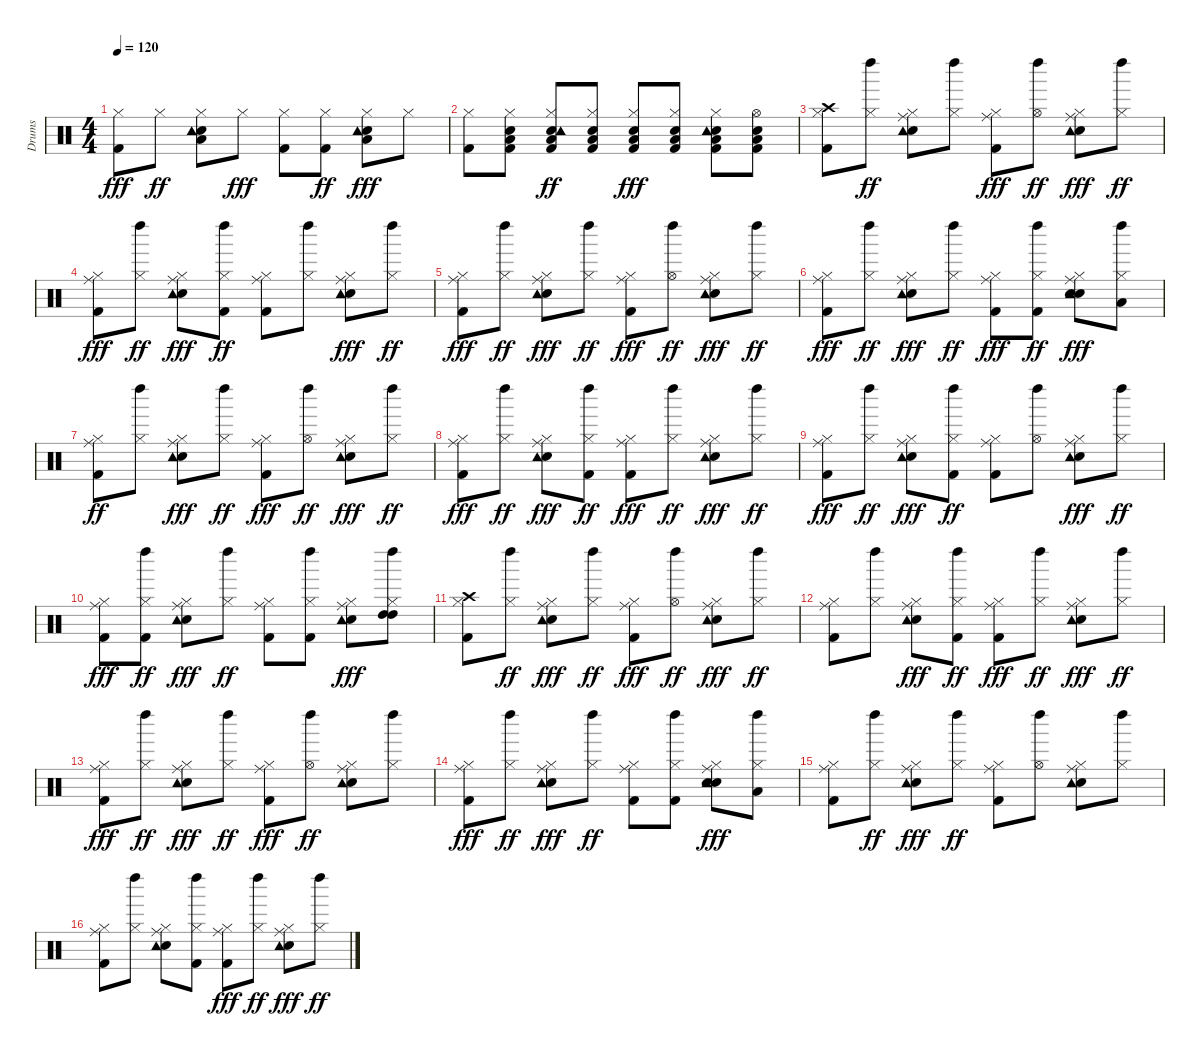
\track ("Drums" "Drums") {instrument percussion}
\staff {score}
\articulation defaults
\ts (4 4)
\tempo 120
\clef neutral
\ks c
("Kick (hit) 2" "Hi-Hat (closed)").8{dy fff} "Hi-Hat (closed)".8{dy ff} ("Hi-Hat (closed)" "Low Floor Tom (hit)" "Snare (hit) 2" "Tambourine (hit)").8 "Hi-Hat (closed)".8{dy fff} ("Kick (hit) 2" "Hi-Hat (closed)").8 ("Kick (hit) 2" "Hi-Hat (closed)").8{dy ff} ("Hi-Hat (closed)" "Low Floor Tom (hit)" "Snare (hit) 2" "Tambourine (hit)").8{dy fff} "Hi-Hat (closed)".8 |
("Kick (hit) 2" "Hi-Hat (closed)").8 ("Kick (hit) 2" "Hi-Hat (closed)" "Snare (hit) 2" "Low Floor Tom (hit)").8 ("Kick (hit) 2" "Hi-Hat (closed)" "Low Floor Tom (hit)" "Snare (hit) 2" "Tambourine (hit)").8{dy ff} ("Kick (hit) 2" "Hi-Hat (closed)" "Low Floor Tom (hit)" "Snare (hit) 2").8 ("Kick (hit) 2" "Hi-Hat (closed)" "Low Floor Tom (hit)" "Snare (hit) 2").8{dy fff} ("Kick (hit) 2" "Hi-Hat (closed)" "Snare (hit) 2" "Low Floor Tom (hit)").8 ("Kick (hit) 2" "Hi-Hat (closed)" "Low Floor Tom (hit)" "Snare (hit) 2" "Tambourine (hit)").8 ("Kick (hit) 2" "Hi-Hat (open)" "Snare (hit) 2" "Low Floor Tom (hit)").8 |
("Kick (hit) 2" "Hi-Hat (closed)" "Crash high (hit)").8 ("Hi-Hat (closed)" "Left Maraca (hit)").8{dy ff} ("Hi-Hat (closed)" "Snare (hit) 2" "Tambourine (hit)" "Ride (middle)").8 ("Hi-Hat (closed)" "Left Maraca (hit)").8 ("Kick (hit) 2" "Hi-Hat (closed)" "Ride (middle)").8{dy fff} ("Hi-Hat (open)" "Left Maraca (hit)").8{dy ff} ("Hi-Hat (closed)" "Snare (hit) 2" "Tambourine (hit)" "Ride (middle)").8{dy fff} ("Hi-Hat (closed)" "Left Maraca (hit)").8{dy ff} |
("Kick (hit) 2" "Hi-Hat (closed)" "Ride (middle)").8{dy fff} ("Hi-Hat (closed)" "Left Maraca (hit)").8{dy ff} ("Hi-Hat (closed)" "Snare (hit) 2" "Tambourine (hit)" "Ride (middle)").8{dy fff} ("Kick (hit) 2" "Hi-Hat (closed)" "Left Maraca (hit)").8{dy ff} ("Kick (hit) 2" "Hi-Hat (closed)" "Ride (middle)").8 ("Hi-Hat (closed)" "Left Maraca (hit)").8 ("Hi-Hat (closed)" "Snare (hit) 2" "Tambourine (hit)" "Ride (middle)").8{dy fff} ("Hi-Hat (closed)" "Left Maraca (hit)").8{dy ff} |
("Kick (hit) 2" "Hi-Hat (closed)" "Ride (middle)").8{dy fff} ("Hi-Hat (closed)" "Left Maraca (hit)").8{dy ff} ("Hi-Hat (closed)" "Snare (hit) 2" "Tambourine (hit)" "Ride (middle)").8{dy fff} ("Hi-Hat (closed)" "Left Maraca (hit)").8{dy ff} ("Kick (hit) 2" "Hi-Hat (closed)" "Ride (middle)").8{dy fff} ("Hi-Hat (open)" "Left Maraca (hit)").8{dy ff} ("Hi-Hat (closed)" "Snare (hit) 2" "Tambourine (hit)" "Ride (middle)").8{dy fff} ("Hi-Hat (closed)" "Left Maraca (hit)").8{dy ff} |
("Kick (hit) 2" "Hi-Hat (closed)" "Ride (middle)").8{dy fff} ("Hi-Hat (closed)" "Left Maraca (hit)").8{dy ff} ("Hi-Hat (closed)" "Snare (hit) 2" "Tambourine (hit)" "Ride (middle)").8{dy fff} ("Hi-Hat (closed)" "Left Maraca (hit)").8{dy ff} ("Kick (hit) 2" "Hi-Hat (closed)" "Ride (middle)").8{dy fff} ("Kick (hit) 2" "Hi-Hat (closed)" "Left Maraca (hit)").8{dy ff} ("Hi-Hat (closed)" "Snare (hit) 2" "Tambourine (hit)" "Ride (middle)" "Snare (hit) 2").8{dy fff} ("Hi-Hat (closed)" "Left Maraca (hit)" "Low Floor Tom (hit)").8 |
("Kick (hit) 2" "Hi-Hat (closed)" "Ride (middle)").8{dy ff} ("Hi-Hat (closed)" "Left Maraca (hit)").8 ("Hi-Hat (closed)" "Snare (hit) 2" "Tambourine (hit)" "Ride (middle)").8{dy fff} ("Hi-Hat (closed)" "Left Maraca (hit)").8{dy ff} ("Kick (hit) 2" "Hi-Hat (closed)" "Ride (middle)").8{dy fff} ("Hi-Hat (open)" "Left Maraca (hit)").8{dy ff} ("Hi-Hat (closed)" "Snare (hit) 2" "Tambourine (hit)" "Ride (middle)").8{dy fff} ("Hi-Hat (closed)" "Left Maraca (hit)").8{dy ff} |
("Kick (hit) 2" "Hi-Hat (closed)" "Ride (middle)").8{dy fff} ("Hi-Hat (closed)" "Left Maraca (hit)").8{dy ff} ("Hi-Hat (closed)" "Snare (hit) 2" "Tambourine (hit)" "Ride (middle)").8{dy fff} ("Kick (hit) 2" "Hi-Hat (closed)" "Left Maraca (hit)").8{dy ff} ("Kick (hit) 2" "Hi-Hat (closed)" "Ride (middle)").8{dy fff} ("Hi-Hat (closed)" "Left Maraca (hit)").8{dy ff} ("Hi-Hat (closed)" "Snare (hit) 2" "Tambourine (hit)" "Ride (middle)").8{dy fff} ("Hi-Hat (closed)" "Left Maraca (hit)").8{dy ff} |
("Kick (hit) 2" "Hi-Hat (closed)" "Ride (middle)").8{dy fff} ("Hi-Hat (closed)" "Left Maraca (hit)").8{dy ff} ("Hi-Hat (closed)" "Snare (hit) 2" "Tambourine (hit)" "Ride (middle)").8{dy fff} ("Kick (hit) 2" "Hi-Hat (closed)" "Left Maraca (hit)").8{dy ff} ("Kick (hit) 2" "Hi-Hat (closed)" "Ride (middle)").8 ("Hi-Hat (open)" "Left Maraca (hit)").8 ("Hi-Hat (closed)" "Snare (hit) 2" "Tambourine (hit)" "Ride (middle)").8{dy fff} ("Hi-Hat (closed)" "Left Maraca (hit)").8{dy ff} |
("Kick (hit) 2" "Hi-Hat (closed)" "Ride (middle)").8{dy fff} ("Kick (hit) 2" "Hi-Hat (closed)" "Left Maraca (hit)").8{dy ff} ("Hi-Hat (closed)" "Snare (hit) 2" "Tambourine (hit)" "Ride (middle)").8{dy fff} ("Hi-Hat (closed)" "Left Maraca (hit)").8{dy ff} ("Kick (hit) 2" "Hi-Hat (closed)" "Ride (middle)").8 ("Kick (hit) 2" "Hi-Hat (closed)" "Left Maraca (hit)").8 ("Hi-Hat (closed)" "Snare (hit) 2" "Tambourine (hit)" "Ride (middle)").8{dy fff} ("Hi-Hat (closed)" "Left Maraca (hit)" "High Tom (hit)" "High Tom (hit)").8 |
("Kick (hit) 2" "Hi-Hat (closed)" "Crash high (hit)").8 ("Hi-Hat (closed)" "Left Maraca (hit)").8{dy ff} ("Hi-Hat (closed)" "Snare (hit) 2" "Tambourine (hit)" "Ride (middle)").8{dy fff} ("Hi-Hat (closed)" "Left Maraca (hit)").8{dy ff} ("Kick (hit) 2" "Hi-Hat (closed)" "Ride (middle)").8{dy fff} ("Hi-Hat (open)" "Left Maraca (hit)").8{dy ff} ("Hi-Hat (closed)" "Snare (hit) 2" "Tambourine (hit)" "Ride (middle)").8{dy fff} ("Hi-Hat (closed)" "Left Maraca (hit)").8{dy ff} |
("Kick (hit) 2" "Hi-Hat (closed)" "Ride (middle)").8 ("Hi-Hat (closed)" "Left Maraca (hit)").8 ("Hi-Hat (closed)" "Snare (hit) 2" "Tambourine (hit)" "Ride (middle)").8{dy fff} ("Kick (hit) 2" "Hi-Hat (closed)" "Left Maraca (hit)").8{dy ff} ("Kick (hit) 2" "Hi-Hat (closed)" "Ride (middle)").8{dy fff} ("Hi-Hat (closed)" "Left Maraca (hit)").8{dy ff} ("Hi-Hat (closed)" "Snare (hit) 2" "Tambourine (hit)" "Ride (middle)").8{dy fff} ("Hi-Hat (closed)" "Left Maraca (hit)").8{dy ff} |
("Kick (hit) 2" "Hi-Hat (closed)" "Ride (middle)").8{dy fff} ("Hi-Hat (closed)" "Left Maraca (hit)").8{dy ff} ("Hi-Hat (closed)" "Snare (hit) 2" "Tambourine (hit)" "Ride (middle)").8{dy fff} ("Hi-Hat (closed)" "Left Maraca (hit)").8{dy ff} ("Kick (hit) 2" "Hi-Hat (closed)" "Ride (middle)").8{dy fff} ("Hi-Hat (open)" "Left Maraca (hit)").8{dy ff} ("Hi-Hat (closed)" "Snare (hit) 2" "Tambourine (hit)" "Ride (middle)").8 ("Hi-Hat (closed)" "Left Maraca (hit)").8 |
("Kick (hit) 2" "Hi-Hat (closed)" "Ride (middle)").8{dy fff} ("Hi-Hat (closed)" "Left Maraca (hit)").8{dy ff} ("Hi-Hat (closed)" "Snare (hit) 2" "Tambourine (hit)" "Ride (middle)").8{dy fff} ("Hi-Hat (closed)" "Left Maraca (hit)").8{dy ff} ("Kick (hit) 2" "Hi-Hat (closed)" "Ride (middle)").8 ("Kick (hit) 2" "Hi-Hat (closed)" "Left Maraca (hit)").8 ("Hi-Hat (closed)" "Snare (hit) 2" "Tambourine (hit)" "Ride (middle)" "Snare (hit) 2").8{dy fff} ("Hi-Hat (closed)" "Left Maraca (hit)" "Low Floor Tom (hit)").8 |
("Kick (hit) 2" "Hi-Hat (closed)" "Ride (middle)").8 ("Hi-Hat (closed)" "Left Maraca (hit)").8{dy ff} ("Hi-Hat (closed)" "Snare (hit) 2" "Tambourine (hit)" "Ride (middle)").8{dy fff} ("Hi-Hat (closed)" "Left Maraca (hit)").8{dy ff} ("Kick (hit) 2" "Hi-Hat (closed)" "Ride (middle)").8 ("Hi-Hat (open)" "Left Maraca (hit)").8 ("Hi-Hat (closed)" "Snare (hit) 2" "Tambourine (hit)" "Ride (middle)").8 ("Hi-Hat (closed)" "Left Maraca (hit)").8 |
("Kick (hit) 2" "Hi-Hat (closed)" "Ride (middle)").8 ("Hi-Hat (closed)" "Left Maraca (hit)").8 ("Hi-Hat (closed)" "Snare (hit) 2" "Tambourine (hit)" "Ride (middle)").8 ("Kick (hit) 2" "Hi-Hat (closed)" "Left Maraca (hit)").8 ("Kick (hit) 2" "Hi-Hat (closed)" "Ride (middle)").8{dy fff} ("Hi-Hat (closed)" "Left Maraca (hit)").8{dy ff} ("Hi-Hat (closed)" "Snare (hit) 2" "Tambourine (hit)" "Ride (middle)").8{dy fff} ("Hi-Hat (closed)" "Left Maraca (hit)").8{dy ff}
